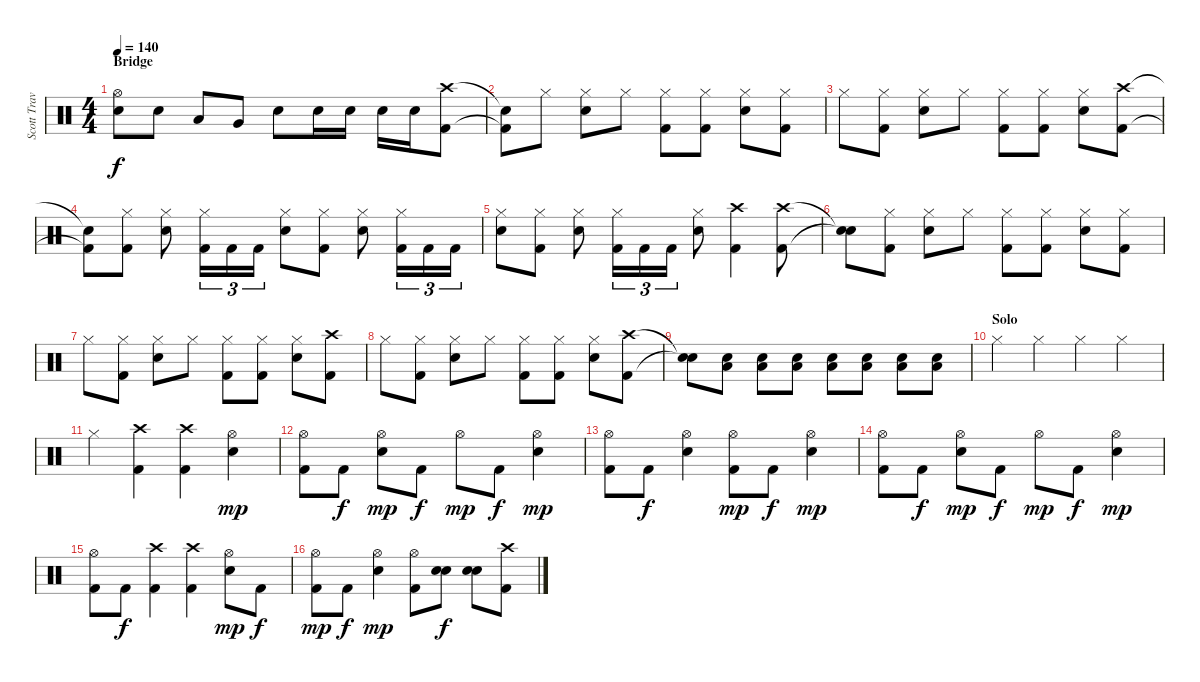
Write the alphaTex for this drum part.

\track ("Scott Travis" "Scott Trav") {instrument percussion}
\staff {score}
\articulation defaults
\ts (4 4)
\section ("" "Bridge")
\tempo 140
\clef neutral
\ks c
("Hi-Hat (open)"{t} "Snare (hit)"{t}).8{dy f} "Snare (hit) 2".8 "Low Tom (hit)".8 "Very Low Tom (hit)".8 "Snare (hit) 2".8 "Snare (hit) 2".16 "Snare (hit) 2".16 "Snare (hit) 2".16 "Snare (hit) 2".16 ("Crash high (hit)" "Kick (hit) 2").8 |
("Snare (hit)"{t} "Kick (hit) 2"{t}).8 "Hi-Hat (closed)".8 ("Hi-Hat (closed)" "Snare (hit) 2").8 "Hi-Hat (closed)".8 ("Hi-Hat (closed)" "Kick (hit) 2").8 ("Hi-Hat (closed)" "Kick (hit) 2").8 ("Hi-Hat (closed)" "Snare (hit) 2").8 ("Hi-Hat (closed)" "Kick (hit) 2").8 |
"Hi-Hat (closed)".8 ("Hi-Hat (closed)" "Kick (hit) 2").8 ("Hi-Hat (closed)" "Snare (hit) 2").8 "Hi-Hat (closed)".8 ("Hi-Hat (closed)" "Kick (hit) 2").8 ("Hi-Hat (closed)" "Kick (hit) 2").8 ("Hi-Hat (closed)" "Snare (hit) 2").8 ("Crash high (hit)" "Kick (hit) 2").8 |
("Snare (hit)"{t} "Kick (hit) 2"{t}).8 ("Hi-Hat (closed)" "Kick (hit) 2").8 ("Hi-Hat (closed)" "Snare (hit) 2").8 ("Hi-Hat (closed)" "Kick (hit) 2").16{tu (3 2)} "Kick (hit) 2".16{tu (3 2)} "Kick (hit) 2".16{tu (3 2)} ("Hi-Hat (closed)" "Snare (hit) 2").8 ("Hi-Hat (closed)" "Kick (hit) 2").8 ("Hi-Hat (closed)" "Snare (hit) 2").8 ("Hi-Hat (closed)" "Kick (hit) 2").16{tu (3 2)} "Kick (hit) 2".16{tu (3 2)} "Kick (hit) 2".16{tu (3 2)} |
("Hi-Hat (closed)" "Snare (hit) 2").8 ("Hi-Hat (closed)" "Kick (hit) 2").8 ("Hi-Hat (closed)" "Snare (hit) 2").8 ("Hi-Hat (closed)" "Kick (hit) 2").16{tu (3 2)} "Kick (hit) 2".16{tu (3 2)} "Kick (hit) 2".16{tu (3 2)} ("Hi-Hat (closed)" "Snare (hit) 2").8 ("Crash high (hit)" "Kick (hit) 2").4 ("Crash high (hit)" "Kick (hit) 2").8 |
("Snare (hit)"{t} "Snare (hit)"{t}).8 ("Hi-Hat (closed)" "Kick (hit) 2").8 ("Hi-Hat (closed)" "Snare (hit) 2").8 "Hi-Hat (closed)".8 ("Hi-Hat (closed)" "Kick (hit) 2").8 ("Hi-Hat (closed)" "Kick (hit) 2").8 ("Hi-Hat (closed)" "Snare (hit) 2").8 ("Hi-Hat (closed)" "Kick (hit) 2").8 |
"Hi-Hat (closed)".8 ("Hi-Hat (closed)" "Kick (hit) 2").8 ("Hi-Hat (closed)" "Snare (hit) 2").8 "Hi-Hat (closed)".8 ("Hi-Hat (closed)" "Kick (hit) 2").8 ("Hi-Hat (closed)" "Kick (hit) 2").8 ("Hi-Hat (closed)" "Snare (hit) 2").8 ("Crash high (hit)" "Kick (hit) 2").8 |
"Hi-Hat (closed)".8 ("Hi-Hat (closed)" "Kick (hit) 2").8 ("Hi-Hat (closed)" "Snare (hit) 2").8 "Hi-Hat (closed)".8 ("Hi-Hat (closed)" "Kick (hit) 2").8 ("Hi-Hat (closed)" "Kick (hit) 2").8 ("Hi-Hat (closed)" "Snare (hit) 2").8 ("Crash high (hit)" "Kick (hit) 2").8 |
("Snare (hit)"{t} "Snare (hit)"{t}).8 ("Snare (hit) 2" "Low Floor Tom (hit)").8 ("Snare (hit) 2" "Low Floor Tom (hit)").8 ("Snare (hit) 2" "Low Floor Tom (hit)").8 ("Snare (hit) 2" "Low Floor Tom (hit)").8 ("Snare (hit) 2" "Low Floor Tom (hit)").8 ("Snare (hit) 2" "Low Floor Tom (hit)").8 ("Snare (hit) 2" "Low Floor Tom (hit)").8 |
\section ("" "Solo")
"Hi-Hat (closed)".4 "Hi-Hat (closed)".4 "Hi-Hat (closed)".4 "Hi-Hat (closed)".4 |
"Hi-Hat (closed)".4 ("Crash high (hit)" "Kick (hit) 2").4 ("Crash high (hit)" "Kick (hit) 2").4 ("Hi-Hat (open)" "Snare (hit) 2").4{dy mp} |
("Hi-Hat (open)" "Kick (hit) 2").8 "Kick (hit) 2".8{dy f} ("Hi-Hat (open)" "Snare (hit) 2").8{dy mp} "Kick (hit) 2".8{dy f} "Hi-Hat (open)".8{dy mp} "Kick (hit) 2".8{dy f} ("Hi-Hat (open)" "Snare (hit) 2").4{dy mp} |
("Hi-Hat (open)" "Kick (hit) 2").8 "Kick (hit) 2".8{dy f} ("Hi-Hat (open)" "Snare (hit) 2").4 ("Hi-Hat (open)" "Kick (hit) 2").8{dy mp} "Kick (hit) 2".8{dy f} ("Hi-Hat (open)" "Snare (hit) 2").4{dy mp} |
("Hi-Hat (open)" "Kick (hit) 2").8 "Kick (hit) 2".8{dy f} ("Hi-Hat (open)" "Snare (hit) 2").8{dy mp} "Kick (hit) 2".8{dy f} "Hi-Hat (open)".8{dy mp} "Kick (hit) 2".8{dy f} ("Hi-Hat (open)" "Snare (hit) 2").4{dy mp} |
("Hi-Hat (open)" "Kick (hit) 2").8 "Kick (hit) 2".8{dy f} ("Crash high (hit)" "Kick (hit) 2").4 ("Crash high (hit)" "Kick (hit) 2").4 ("Hi-Hat (open)" "Snare (hit) 2").8{dy mp} "Kick (hit) 2".8{dy f} |
("Hi-Hat (open)" "Kick (hit) 2").8{dy mp} "Kick (hit) 2".8{dy f} ("Hi-Hat (open)" "Snare (hit) 2").4{dy mp} ("Hi-Hat (open)" "Kick (hit) 2").8 ("Snare (hit) 2" "Snare (hit) 2").8{dy f} ("Snare (hit) 2" "Snare (hit) 2").8 ("Crash high (hit)" "Kick (hit) 2").8
